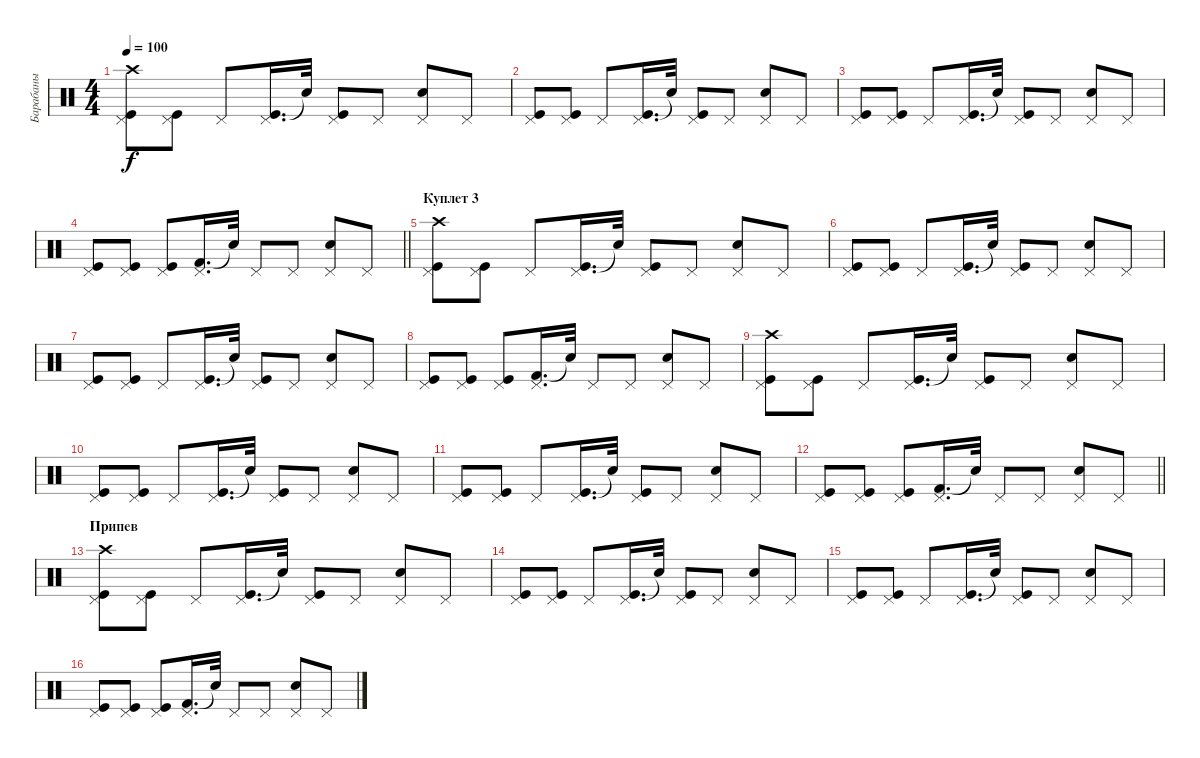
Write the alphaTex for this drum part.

\track ("Барабаны" "Барабаны") {instrument percussion}
\staff {score}
\articulation defaults
\ts (4 4)
\tempo 100
\clef neutral
\ks c
("Crash high (hit)" "Kick (hit)" "Pedal Hi-Hat (hit)").8{dy f} ("Kick (hit)" "Pedal Hi-Hat (hit)").8 "Pedal Hi-Hat (hit)".8 ("Kick (hit)" "Pedal Hi-Hat (hit)").16{d} "Snare (hit)"{t}.32 ("Kick (hit)" "Pedal Hi-Hat (hit)").8 "Pedal Hi-Hat (hit)".8 ("Snare (hit) 2" "Pedal Hi-Hat (hit)").8 "Pedal Hi-Hat (hit)".8 |
("Kick (hit)" "Pedal Hi-Hat (hit)").8 ("Kick (hit)" "Pedal Hi-Hat (hit)").8 "Pedal Hi-Hat (hit)".8 ("Kick (hit)" "Pedal Hi-Hat (hit)").16{d} "Snare (hit)"{t}.32 ("Kick (hit)" "Pedal Hi-Hat (hit)").8 "Pedal Hi-Hat (hit)".8 ("Snare (hit) 2" "Pedal Hi-Hat (hit)").8 "Pedal Hi-Hat (hit)".8 |
("Kick (hit)" "Pedal Hi-Hat (hit)").8 ("Kick (hit)" "Pedal Hi-Hat (hit)").8 "Pedal Hi-Hat (hit)".8 ("Kick (hit)" "Pedal Hi-Hat (hit)").16{d} "Snare (hit)"{t}.32 ("Kick (hit)" "Pedal Hi-Hat (hit)").8 "Pedal Hi-Hat (hit)".8 ("Snare (hit) 2" "Pedal Hi-Hat (hit)").8 "Pedal Hi-Hat (hit)".8 |
\barLineRight lightlight
("Kick (hit)" "Pedal Hi-Hat (hit)").8 ("Kick (hit)" "Pedal Hi-Hat (hit)").8 ("Kick (hit)" "Pedal Hi-Hat (hit)").8 ("Kick (hit) 2" "Pedal Hi-Hat (hit)").16{d} "Snare (hit)"{t}.32 "Pedal Hi-Hat (hit)".8 "Pedal Hi-Hat (hit)".8 ("Snare (hit) 2" "Pedal Hi-Hat (hit)").8 "Pedal Hi-Hat (hit)".8 |
\section ("" "Куплет 3")
("Crash high (hit)" "Kick (hit)" "Pedal Hi-Hat (hit)").8 ("Kick (hit)" "Pedal Hi-Hat (hit)").8 "Pedal Hi-Hat (hit)".8 ("Kick (hit)" "Pedal Hi-Hat (hit)").16{d} "Snare (hit)"{t}.32 ("Kick (hit)" "Pedal Hi-Hat (hit)").8 "Pedal Hi-Hat (hit)".8 ("Snare (hit) 2" "Pedal Hi-Hat (hit)").8 "Pedal Hi-Hat (hit)".8 |
("Kick (hit)" "Pedal Hi-Hat (hit)").8 ("Kick (hit)" "Pedal Hi-Hat (hit)").8 "Pedal Hi-Hat (hit)".8 ("Kick (hit)" "Pedal Hi-Hat (hit)").16{d} "Snare (hit)"{t}.32 ("Kick (hit)" "Pedal Hi-Hat (hit)").8 "Pedal Hi-Hat (hit)".8 ("Snare (hit) 2" "Pedal Hi-Hat (hit)").8 "Pedal Hi-Hat (hit)".8 |
("Kick (hit)" "Pedal Hi-Hat (hit)").8 ("Kick (hit)" "Pedal Hi-Hat (hit)").8 "Pedal Hi-Hat (hit)".8 ("Kick (hit)" "Pedal Hi-Hat (hit)").16{d} "Snare (hit)"{t}.32 ("Kick (hit)" "Pedal Hi-Hat (hit)").8 "Pedal Hi-Hat (hit)".8 ("Snare (hit) 2" "Pedal Hi-Hat (hit)").8 "Pedal Hi-Hat (hit)".8 |
("Kick (hit)" "Pedal Hi-Hat (hit)").8 ("Kick (hit)" "Pedal Hi-Hat (hit)").8 ("Kick (hit)" "Pedal Hi-Hat (hit)").8 ("Kick (hit) 2" "Pedal Hi-Hat (hit)").16{d} "Snare (hit)"{t}.32 "Pedal Hi-Hat (hit)".8 "Pedal Hi-Hat (hit)".8 ("Snare (hit) 2" "Pedal Hi-Hat (hit)").8 "Pedal Hi-Hat (hit)".8 |
("Crash high (hit)" "Kick (hit)" "Pedal Hi-Hat (hit)").8 ("Kick (hit)" "Pedal Hi-Hat (hit)").8 "Pedal Hi-Hat (hit)".8 ("Kick (hit)" "Pedal Hi-Hat (hit)").16{d} "Snare (hit)"{t}.32 ("Kick (hit)" "Pedal Hi-Hat (hit)").8 "Pedal Hi-Hat (hit)".8 ("Snare (hit) 2" "Pedal Hi-Hat (hit)").8 "Pedal Hi-Hat (hit)".8 |
("Kick (hit)" "Pedal Hi-Hat (hit)").8 ("Kick (hit)" "Pedal Hi-Hat (hit)").8 "Pedal Hi-Hat (hit)".8 ("Kick (hit)" "Pedal Hi-Hat (hit)").16{d} "Snare (hit)"{t}.32 ("Kick (hit)" "Pedal Hi-Hat (hit)").8 "Pedal Hi-Hat (hit)".8 ("Snare (hit) 2" "Pedal Hi-Hat (hit)").8 "Pedal Hi-Hat (hit)".8 |
("Kick (hit)" "Pedal Hi-Hat (hit)").8 ("Kick (hit)" "Pedal Hi-Hat (hit)").8 "Pedal Hi-Hat (hit)".8 ("Kick (hit)" "Pedal Hi-Hat (hit)").16{d} "Snare (hit)"{t}.32 ("Kick (hit)" "Pedal Hi-Hat (hit)").8 "Pedal Hi-Hat (hit)".8 ("Snare (hit) 2" "Pedal Hi-Hat (hit)").8 "Pedal Hi-Hat (hit)".8 |
\barLineRight lightlight
("Kick (hit)" "Pedal Hi-Hat (hit)").8 ("Kick (hit)" "Pedal Hi-Hat (hit)").8 ("Kick (hit)" "Pedal Hi-Hat (hit)").8 ("Kick (hit) 2" "Pedal Hi-Hat (hit)").16{d} "Snare (hit)"{t}.32 "Pedal Hi-Hat (hit)".8 "Pedal Hi-Hat (hit)".8 ("Snare (hit) 2" "Pedal Hi-Hat (hit)").8 "Pedal Hi-Hat (hit)".8 |
\section ("" "Припев")
("Crash high (hit)" "Kick (hit)" "Pedal Hi-Hat (hit)").8 ("Kick (hit)" "Pedal Hi-Hat (hit)").8 "Pedal Hi-Hat (hit)".8 ("Kick (hit)" "Pedal Hi-Hat (hit)").16{d} "Snare (hit)"{t}.32 ("Kick (hit)" "Pedal Hi-Hat (hit)").8 "Pedal Hi-Hat (hit)".8 ("Snare (hit) 2" "Pedal Hi-Hat (hit)").8 "Pedal Hi-Hat (hit)".8 |
("Kick (hit)" "Pedal Hi-Hat (hit)").8 ("Kick (hit)" "Pedal Hi-Hat (hit)").8 "Pedal Hi-Hat (hit)".8 ("Kick (hit)" "Pedal Hi-Hat (hit)").16{d} "Snare (hit)"{t}.32 ("Kick (hit)" "Pedal Hi-Hat (hit)").8 "Pedal Hi-Hat (hit)".8 ("Snare (hit) 2" "Pedal Hi-Hat (hit)").8 "Pedal Hi-Hat (hit)".8 |
("Kick (hit)" "Pedal Hi-Hat (hit)").8 ("Kick (hit)" "Pedal Hi-Hat (hit)").8 "Pedal Hi-Hat (hit)".8 ("Kick (hit)" "Pedal Hi-Hat (hit)").16{d} "Snare (hit)"{t}.32 ("Kick (hit)" "Pedal Hi-Hat (hit)").8 "Pedal Hi-Hat (hit)".8 ("Snare (hit) 2" "Pedal Hi-Hat (hit)").8 "Pedal Hi-Hat (hit)".8 |
("Kick (hit)" "Pedal Hi-Hat (hit)").8 ("Kick (hit)" "Pedal Hi-Hat (hit)").8 ("Kick (hit)" "Pedal Hi-Hat (hit)").8 ("Kick (hit) 2" "Pedal Hi-Hat (hit)").16{d} "Snare (hit)"{t}.32 "Pedal Hi-Hat (hit)".8 "Pedal Hi-Hat (hit)".8 ("Snare (hit) 2" "Pedal Hi-Hat (hit)").8 "Pedal Hi-Hat (hit)".8
